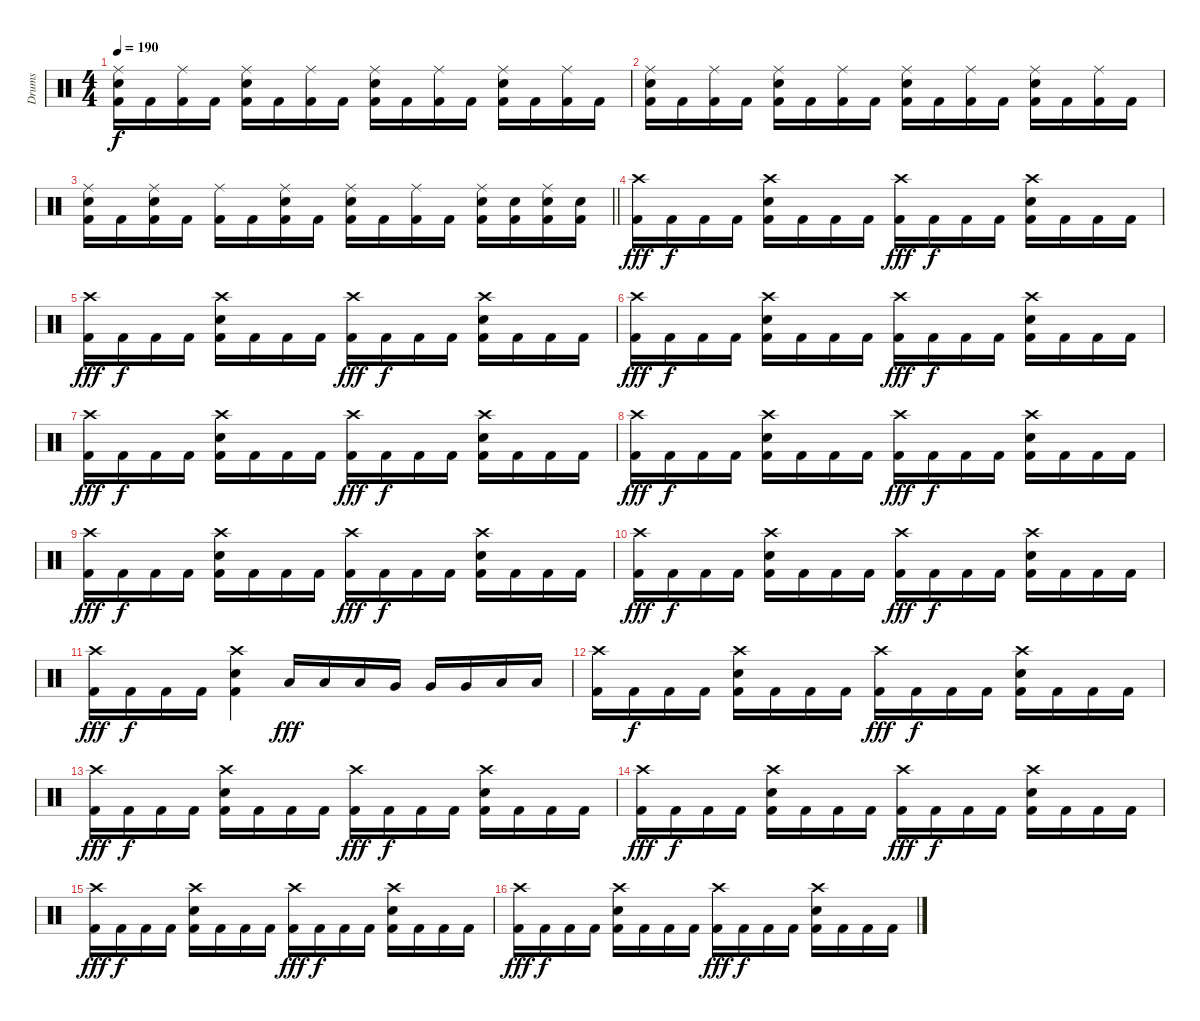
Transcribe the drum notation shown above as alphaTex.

\track ("Drums" "Drums") {instrument percussion}
\staff {score}
\articulation defaults
\ts (4 4)
\tempo 190
\clef neutral
\ks c
("Ride (middle)" "Electric Snare (hit)" "Kick (hit) 2").16{dy f} "Kick (hit) 2".16 ("Ride (middle)" "Kick (hit) 2").16 "Kick (hit) 2".16 ("Ride (middle)" "Electric Snare (hit)" "Kick (hit) 2").16 "Kick (hit) 2".16 ("Ride (middle)" "Kick (hit) 2").16 "Kick (hit) 2".16 ("Ride (middle)" "Electric Snare (hit)" "Kick (hit) 2").16 "Kick (hit) 2".16 ("Ride (middle)" "Kick (hit) 2").16 "Kick (hit) 2".16 ("Ride (middle)" "Electric Snare (hit)" "Kick (hit) 2").16 "Kick (hit) 2".16 ("Ride (middle)" "Kick (hit) 2").16 "Kick (hit) 2".16 |
("Ride (middle)" "Electric Snare (hit)" "Kick (hit) 2").16 "Kick (hit) 2".16 ("Ride (middle)" "Kick (hit) 2").16 "Kick (hit) 2".16 ("Ride (middle)" "Electric Snare (hit)" "Kick (hit) 2").16 "Kick (hit) 2".16 ("Ride (middle)" "Kick (hit) 2").16 "Kick (hit) 2".16 ("Ride (middle)" "Electric Snare (hit)" "Kick (hit) 2").16 "Kick (hit) 2".16 ("Ride (middle)" "Kick (hit) 2").16 "Kick (hit) 2".16 ("Ride (middle)" "Electric Snare (hit)" "Kick (hit) 2").16 "Kick (hit) 2".16 ("Ride (middle)" "Kick (hit) 2").16 "Kick (hit) 2".16 |
\barLineRight lightlight
("Ride (middle)" "Electric Snare (hit)" "Kick (hit) 2").16 "Kick (hit) 2".16 ("Ride (middle)" "Electric Snare (hit)" "Kick (hit) 2").16 "Kick (hit) 2".16 ("Ride (middle)" "Kick (hit) 2").16 "Kick (hit) 2".16 ("Ride (middle)" "Electric Snare (hit)" "Kick (hit) 2").16 "Kick (hit) 2".16 ("Ride (middle)" "Electric Snare (hit)" "Kick (hit) 2").16 "Kick (hit) 2".16 ("Ride (middle)" "Kick (hit) 2").16 "Kick (hit) 2".16 ("Ride (middle)" "Electric Snare (hit)" "Kick (hit) 2").16 ("Electric Snare (hit)" "Kick (hit) 2").16 ("Ride (middle)" "Electric Snare (hit)" "Kick (hit) 2").16 ("Electric Snare (hit)" "Kick (hit) 2").16 |
("Crash high (hit)" "Kick (hit) 2").16{dy fff} "Kick (hit) 2".16{dy f} "Kick (hit) 2".16 "Kick (hit) 2".16 ("Crash high (hit)" "Electric Snare (hit)" "Kick (hit) 2").16 "Kick (hit) 2".16 "Kick (hit) 2".16 "Kick (hit) 2".16 ("Crash high (hit)" "Kick (hit) 2").16{dy fff} "Kick (hit) 2".16{dy f} "Kick (hit) 2".16 "Kick (hit) 2".16 ("Crash high (hit)" "Electric Snare (hit)" "Kick (hit) 2").16 "Kick (hit) 2".16 "Kick (hit) 2".16 "Kick (hit) 2".16 |
("Crash high (hit)" "Kick (hit) 2").16{dy fff} "Kick (hit) 2".16{dy f} "Kick (hit) 2".16 "Kick (hit) 2".16 ("Crash high (hit)" "Electric Snare (hit)" "Kick (hit) 2").16 "Kick (hit) 2".16 "Kick (hit) 2".16 "Kick (hit) 2".16 ("Crash high (hit)" "Kick (hit) 2").16{dy fff} "Kick (hit) 2".16{dy f} "Kick (hit) 2".16 "Kick (hit) 2".16 ("Crash high (hit)" "Electric Snare (hit)" "Kick (hit) 2").16 "Kick (hit) 2".16 "Kick (hit) 2".16 "Kick (hit) 2".16 |
("Crash high (hit)" "Kick (hit) 2").16{dy fff} "Kick (hit) 2".16{dy f} "Kick (hit) 2".16 "Kick (hit) 2".16 ("Crash high (hit)" "Electric Snare (hit)" "Kick (hit) 2").16 "Kick (hit) 2".16 "Kick (hit) 2".16 "Kick (hit) 2".16 ("Crash high (hit)" "Kick (hit) 2").16{dy fff} "Kick (hit) 2".16{dy f} "Kick (hit) 2".16 "Kick (hit) 2".16 ("Crash high (hit)" "Electric Snare (hit)" "Kick (hit) 2").16 "Kick (hit) 2".16 "Kick (hit) 2".16 "Kick (hit) 2".16 |
("Crash high (hit)" "Kick (hit) 2").16{dy fff} "Kick (hit) 2".16{dy f} "Kick (hit) 2".16 "Kick (hit) 2".16 ("Crash high (hit)" "Electric Snare (hit)" "Kick (hit) 2").16 "Kick (hit) 2".16 "Kick (hit) 2".16 "Kick (hit) 2".16 ("Crash high (hit)" "Kick (hit) 2").16{dy fff} "Kick (hit) 2".16{dy f} "Kick (hit) 2".16 "Kick (hit) 2".16 ("Crash high (hit)" "Electric Snare (hit)" "Kick (hit) 2").16 "Kick (hit) 2".16 "Kick (hit) 2".16 "Kick (hit) 2".16 |
("Crash high (hit)" "Kick (hit) 2").16{dy fff} "Kick (hit) 2".16{dy f} "Kick (hit) 2".16 "Kick (hit) 2".16 ("Crash high (hit)" "Electric Snare (hit)" "Kick (hit) 2").16 "Kick (hit) 2".16 "Kick (hit) 2".16 "Kick (hit) 2".16 ("Crash high (hit)" "Kick (hit) 2").16{dy fff} "Kick (hit) 2".16{dy f} "Kick (hit) 2".16 "Kick (hit) 2".16 ("Crash high (hit)" "Electric Snare (hit)" "Kick (hit) 2").16 "Kick (hit) 2".16 "Kick (hit) 2".16 "Kick (hit) 2".16 |
("Crash high (hit)" "Kick (hit) 2").16{dy fff} "Kick (hit) 2".16{dy f} "Kick (hit) 2".16 "Kick (hit) 2".16 ("Crash high (hit)" "Electric Snare (hit)" "Kick (hit) 2").16 "Kick (hit) 2".16 "Kick (hit) 2".16 "Kick (hit) 2".16 ("Crash high (hit)" "Kick (hit) 2").16{dy fff} "Kick (hit) 2".16{dy f} "Kick (hit) 2".16 "Kick (hit) 2".16 ("Crash high (hit)" "Electric Snare (hit)" "Kick (hit) 2").16 "Kick (hit) 2".16 "Kick (hit) 2".16 "Kick (hit) 2".16 |
("Crash high (hit)" "Kick (hit) 2").16{dy fff} "Kick (hit) 2".16{dy f} "Kick (hit) 2".16 "Kick (hit) 2".16 ("Crash high (hit)" "Electric Snare (hit)" "Kick (hit) 2").16 "Kick (hit) 2".16 "Kick (hit) 2".16 "Kick (hit) 2".16 ("Crash high (hit)" "Kick (hit) 2").16{dy fff} "Kick (hit) 2".16{dy f} "Kick (hit) 2".16 "Kick (hit) 2".16 ("Crash high (hit)" "Electric Snare (hit)" "Kick (hit) 2").16 "Kick (hit) 2".16 "Kick (hit) 2".16 "Kick (hit) 2".16 |
("Crash high (hit)" "Kick (hit) 2").16{dy fff} "Kick (hit) 2".16{dy f} "Kick (hit) 2".16 "Kick (hit) 2".16 ("Crash high (hit)" "Electric Snare (hit)" "Kick (hit) 2").4 "Low Tom (hit)".16{dy fff} "Low Tom (hit)".16 "Low Tom (hit)".16 "Very Low Tom (hit)".16 "Very Low Tom (hit)".16 "Very Low Tom (hit)".16 "Low Floor Tom (hit)".16 "Low Floor Tom (hit)".16 |
("Crash high (hit)" "Kick (hit) 2").16 "Kick (hit) 2".16{dy f} "Kick (hit) 2".16 "Kick (hit) 2".16 ("Crash high (hit)" "Electric Snare (hit)" "Kick (hit) 2").16 "Kick (hit) 2".16 "Kick (hit) 2".16 "Kick (hit) 2".16 ("Crash high (hit)" "Kick (hit) 2").16{dy fff} "Kick (hit) 2".16{dy f} "Kick (hit) 2".16 "Kick (hit) 2".16 ("Crash high (hit)" "Electric Snare (hit)" "Kick (hit) 2").16 "Kick (hit) 2".16 "Kick (hit) 2".16 "Kick (hit) 2".16 |
("Crash high (hit)" "Kick (hit) 2").16{dy fff} "Kick (hit) 2".16{dy f} "Kick (hit) 2".16 "Kick (hit) 2".16 ("Crash high (hit)" "Electric Snare (hit)" "Kick (hit) 2").16 "Kick (hit) 2".16 "Kick (hit) 2".16 "Kick (hit) 2".16 ("Crash high (hit)" "Kick (hit) 2").16{dy fff} "Kick (hit) 2".16{dy f} "Kick (hit) 2".16 "Kick (hit) 2".16 ("Crash high (hit)" "Electric Snare (hit)" "Kick (hit) 2").16 "Kick (hit) 2".16 "Kick (hit) 2".16 "Kick (hit) 2".16 |
("Crash high (hit)" "Kick (hit) 2").16{dy fff} "Kick (hit) 2".16{dy f} "Kick (hit) 2".16 "Kick (hit) 2".16 ("Crash high (hit)" "Electric Snare (hit)" "Kick (hit) 2").16 "Kick (hit) 2".16 "Kick (hit) 2".16 "Kick (hit) 2".16 ("Crash high (hit)" "Kick (hit) 2").16{dy fff} "Kick (hit) 2".16{dy f} "Kick (hit) 2".16 "Kick (hit) 2".16 ("Crash high (hit)" "Electric Snare (hit)" "Kick (hit) 2").16 "Kick (hit) 2".16 "Kick (hit) 2".16 "Kick (hit) 2".16 |
("Crash high (hit)" "Kick (hit) 2").16{dy fff} "Kick (hit) 2".16{dy f} "Kick (hit) 2".16 "Kick (hit) 2".16 ("Crash high (hit)" "Electric Snare (hit)" "Kick (hit) 2").16 "Kick (hit) 2".16 "Kick (hit) 2".16 "Kick (hit) 2".16 ("Crash high (hit)" "Kick (hit) 2").16{dy fff} "Kick (hit) 2".16{dy f} "Kick (hit) 2".16 "Kick (hit) 2".16 ("Crash high (hit)" "Electric Snare (hit)" "Kick (hit) 2").16 "Kick (hit) 2".16 "Kick (hit) 2".16 "Kick (hit) 2".16 |
("Crash high (hit)" "Kick (hit) 2").16{dy fff} "Kick (hit) 2".16{dy f} "Kick (hit) 2".16 "Kick (hit) 2".16 ("Crash high (hit)" "Electric Snare (hit)" "Kick (hit) 2").16 "Kick (hit) 2".16 "Kick (hit) 2".16 "Kick (hit) 2".16 ("Crash high (hit)" "Kick (hit) 2").16{dy fff} "Kick (hit) 2".16{dy f} "Kick (hit) 2".16 "Kick (hit) 2".16 ("Crash high (hit)" "Electric Snare (hit)" "Kick (hit) 2").16 "Kick (hit) 2".16 "Kick (hit) 2".16 "Kick (hit) 2".16
